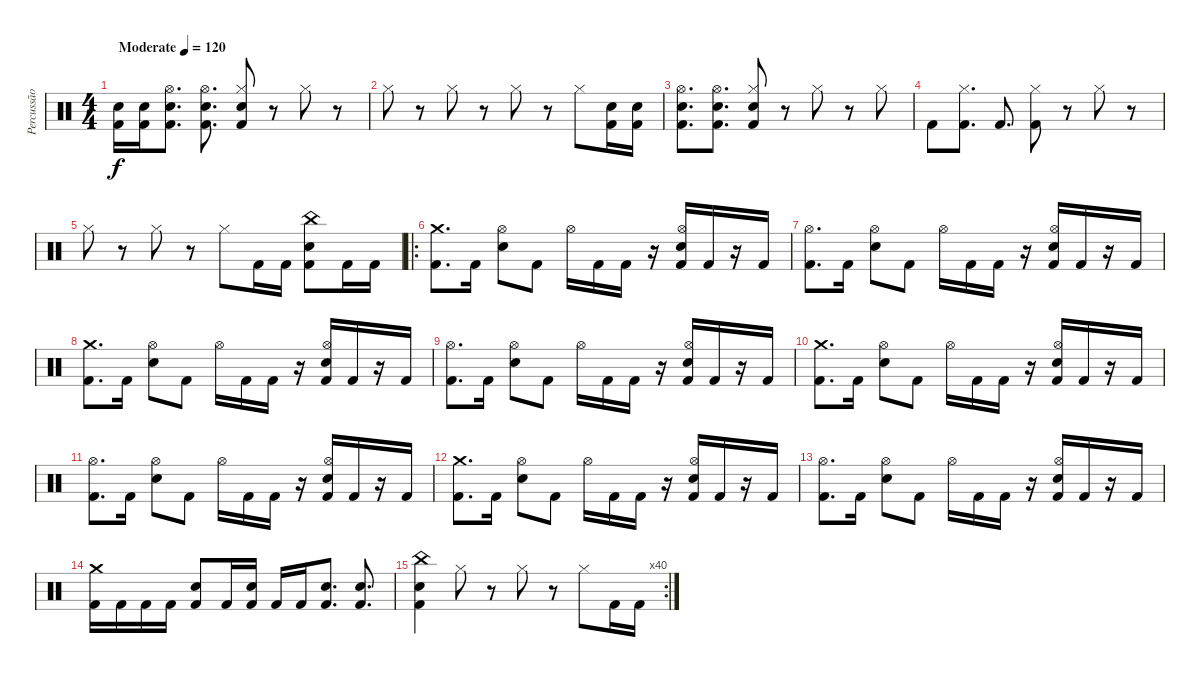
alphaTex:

\track ("Percussão" "Percussão") {instrument percussion}
\staff {score}
\articulation defaults
\ts (4 4)
\tempo (120 "Moderate")
\clef neutral
\ks c
("Electric Snare (hit)" "Kick (hit) 2").16{dy f} ("Electric Snare (hit)" "Kick (hit) 2").16 ("Hi-Hat (open)" "Electric Snare (hit)" "Kick (hit) 2").8{d} ("Hi-Hat (open)" "Electric Snare (hit)" "Kick (hit) 2").8{d} ("Hi-Hat (closed)" "Snare (hit) 2" "Kick (hit) 2").8 r.8 "Hi-Hat (closed)".8 r.8 |
"Hi-Hat (closed)".8 r.8 "Hi-Hat (closed)".8 r.8 "Hi-Hat (closed)".8 r.8 "Hi-Hat (closed)".8 ("Electric Snare (hit)" "Kick (hit) 2").16 ("Electric Snare (hit)" "Kick (hit) 2").16 |
("Hi-Hat (open)" "Electric Snare (hit)" "Kick (hit) 2").8{d} ("Hi-Hat (open)" "Electric Snare (hit)" "Kick (hit) 2").8{d} ("Hi-Hat (closed)" "Snare (hit) 2" "Kick (hit) 2").8 r.8 "Hi-Hat (closed)".8 r.8 "Hi-Hat (closed)".8 |
"Kick (hit) 2".8 ("Hi-Hat (closed)" "Kick (hit) 2").8{d} "Kick (hit) 2".8{d} ("Hi-Hat (closed)" "Kick (hit) 2").8 r.8 "Hi-Hat (closed)".8 r.8 |
"Hi-Hat (closed)".8 r.8 "Hi-Hat (closed)".8 r.8 "Hi-Hat (closed)".8 "Kick (hit) 2".16 "Kick (hit) 2".16 ("China (hit)" "Electric Snare (hit)" "Kick (hit) 2").8 "Kick (hit) 2".16 "Kick (hit) 2".16 |
\ro
("Crash medium (hit)" "Kick (hit) 2").8{d} "Kick (hit) 2".16 ("Hi-Hat (open)" "Snare (hit) 2").8 "Kick (hit) 2".8 "Hi-Hat (open)".16 "Kick (hit) 2".16 "Kick (hit) 2".16 r.16 ("Hi-Hat (open)" "Snare (hit) 2" "Kick (hit) 2").16 "Kick (hit) 2".16 r.16 "Kick (hit) 2".16 |
("Hi-Hat (open)" "Kick (hit) 2").8{d} "Kick (hit) 2".16 ("Hi-Hat (open)" "Snare (hit) 2").8 "Kick (hit) 2".8 "Hi-Hat (open)".16 "Kick (hit) 2".16 "Kick (hit) 2".16 r.16 ("Hi-Hat (open)" "Snare (hit) 2" "Kick (hit) 2").16 "Kick (hit) 2".16 r.16 "Kick (hit) 2".16 |
("Crash medium (hit)" "Kick (hit) 2").8{d} "Kick (hit) 2".16 ("Hi-Hat (open)" "Snare (hit) 2").8 "Kick (hit) 2".8 "Hi-Hat (open)".16 "Kick (hit) 2".16 "Kick (hit) 2".16 r.16 ("Hi-Hat (open)" "Snare (hit) 2" "Kick (hit) 2").16 "Kick (hit) 2".16 r.16 "Kick (hit) 2".16 |
("Hi-Hat (open)" "Kick (hit) 2").8{d} "Kick (hit) 2".16 ("Hi-Hat (open)" "Snare (hit) 2").8 "Kick (hit) 2".8 "Hi-Hat (open)".16 "Kick (hit) 2".16 "Kick (hit) 2".16 r.16 ("Hi-Hat (open)" "Snare (hit) 2" "Kick (hit) 2").16 "Kick (hit) 2".16 r.16 "Kick (hit) 2".16 |
("Crash medium (hit)" "Kick (hit) 2").8{d} "Kick (hit) 2".16 ("Hi-Hat (open)" "Snare (hit) 2").8 "Kick (hit) 2".8 "Hi-Hat (open)".16 "Kick (hit) 2".16 "Kick (hit) 2".16 r.16 ("Hi-Hat (open)" "Snare (hit) 2" "Kick (hit) 2").16 "Kick (hit) 2".16 r.16 "Kick (hit) 2".16 |
("Hi-Hat (open)" "Kick (hit) 2").8{d} "Kick (hit) 2".16 ("Hi-Hat (open)" "Snare (hit) 2").8 "Kick (hit) 2".8 "Hi-Hat (open)".16 "Kick (hit) 2".16 "Kick (hit) 2".16 r.16 ("Hi-Hat (open)" "Snare (hit) 2" "Kick (hit) 2").16 "Kick (hit) 2".16 r.16 "Kick (hit) 2".16 |
("Crash medium (hit)" "Kick (hit) 2").8{d} "Kick (hit) 2".16 ("Hi-Hat (open)" "Snare (hit) 2").8 "Kick (hit) 2".8 "Hi-Hat (open)".16 "Kick (hit) 2".16 "Kick (hit) 2".16 r.16 ("Hi-Hat (open)" "Snare (hit) 2" "Kick (hit) 2").16 "Kick (hit) 2".16 r.16 "Kick (hit) 2".16 |
("Hi-Hat (open)" "Kick (hit) 2").8{d} "Kick (hit) 2".16 ("Hi-Hat (open)" "Snare (hit) 2").8 "Kick (hit) 2".8 "Hi-Hat (open)".16 "Kick (hit) 2".16 "Kick (hit) 2".16 r.16 ("Hi-Hat (open)" "Snare (hit) 2" "Kick (hit) 2").16 "Kick (hit) 2".16 r.16 "Kick (hit) 2".16 |
("Crash medium (hit)" "Kick (hit) 2").16 "Kick (hit) 2".16 "Kick (hit) 2".16 "Kick (hit) 2".16 ("Snare (hit) 2" "Kick (hit) 2").8 "Kick (hit) 2".16 ("Snare (hit) 2" "Kick (hit) 2").16 "Kick (hit) 2".16 "Kick (hit) 2".16 ("Snare (hit) 2" "Kick (hit) 2").8{d} ("Snare (hit) 2" "Kick (hit) 2").8{d} |
\rc 40
("China (hit)" "Snare (hit) 2" "Kick (hit) 2").4 "Hi-Hat (closed)".8 r.8 "Hi-Hat (closed)".8 r.8 "Hi-Hat (closed)".8 "Kick (hit) 2".16 "Kick (hit) 2".16
